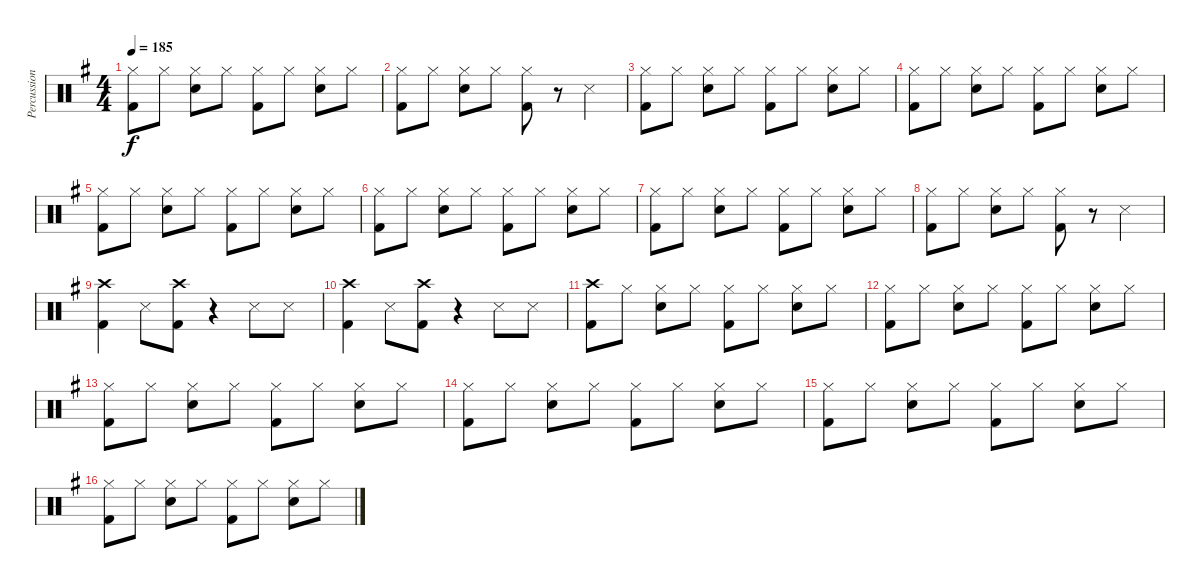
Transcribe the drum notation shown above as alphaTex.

\track ("Percussion" "Percussion") {instrument percussion}
\staff {score}
\articulation defaults
\ts (4 4)
\tempo 185
\clef neutral
\ks g
("Hi-Hat (closed)" "Kick (hit) 2").8{dy f} "Hi-Hat (closed)".8 ("Hi-Hat (closed)" "Snare (hit) 2").8 "Hi-Hat (closed)".8 ("Hi-Hat (closed)" "Kick (hit) 2").8 "Hi-Hat (closed)".8 ("Hi-Hat (closed)" "Snare (hit) 2").8 "Hi-Hat (closed)".8 |
("Hi-Hat (closed)" "Kick (hit) 2").8 "Hi-Hat (closed)".8 ("Hi-Hat (closed)" "Snare (hit) 2").8 "Hi-Hat (closed)".8 ("Hi-Hat (closed)" "Kick (hit) 2").8 r.8 "Snare (side stick) 3".4 |
("Hi-Hat (closed)" "Kick (hit) 2").8 "Hi-Hat (closed)".8 ("Hi-Hat (closed)" "Snare (hit) 2").8 "Hi-Hat (closed)".8 ("Hi-Hat (closed)" "Kick (hit) 2").8 "Hi-Hat (closed)".8 ("Hi-Hat (closed)" "Snare (hit) 2").8 "Hi-Hat (closed)".8 |
("Hi-Hat (closed)" "Kick (hit) 2").8 "Hi-Hat (closed)".8 ("Hi-Hat (closed)" "Snare (hit) 2").8 "Hi-Hat (closed)".8 ("Hi-Hat (closed)" "Kick (hit) 2").8 "Hi-Hat (closed)".8 ("Hi-Hat (closed)" "Snare (hit) 2").8 "Hi-Hat (closed)".8 |
("Hi-Hat (closed)" "Kick (hit) 2").8 "Hi-Hat (closed)".8 ("Hi-Hat (closed)" "Snare (hit) 2").8 "Hi-Hat (closed)".8 ("Hi-Hat (closed)" "Kick (hit) 2").8 "Hi-Hat (closed)".8 ("Hi-Hat (closed)" "Snare (hit) 2").8 "Hi-Hat (closed)".8 |
("Hi-Hat (closed)" "Kick (hit) 2").8 "Hi-Hat (closed)".8 ("Hi-Hat (closed)" "Snare (hit) 2").8 "Hi-Hat (closed)".8 ("Hi-Hat (closed)" "Kick (hit) 2").8 "Hi-Hat (closed)".8 ("Hi-Hat (closed)" "Snare (hit) 2").8 "Hi-Hat (closed)".8 |
("Hi-Hat (closed)" "Kick (hit) 2").8 "Hi-Hat (closed)".8 ("Hi-Hat (closed)" "Snare (hit) 2").8 "Hi-Hat (closed)".8 ("Hi-Hat (closed)" "Kick (hit) 2").8 "Hi-Hat (closed)".8 ("Hi-Hat (closed)" "Snare (hit) 2").8 "Hi-Hat (closed)".8 |
("Hi-Hat (closed)" "Kick (hit) 2").8 "Hi-Hat (closed)".8 ("Hi-Hat (closed)" "Snare (hit) 2").8 "Hi-Hat (closed)".8 ("Hi-Hat (closed)" "Kick (hit) 2").8 r.8 "Snare (side stick) 3".4 |
("Crash high (hit)" "Kick (hit) 2").4 "Snare (side stick) 3".8 ("Crash high (hit)" "Kick (hit) 2").8 r.4 "Snare (side stick) 3".8 "Snare (side stick) 3".8 |
("Crash high (hit)" "Kick (hit) 2").4 "Snare (side stick) 3".8 ("Crash high (hit)" "Kick (hit) 2").8 r.4 "Snare (side stick) 3".8 "Snare (side stick) 3".8 |
("Crash high (hit)" "Kick (hit) 2").8 "Hi-Hat (closed)".8 ("Hi-Hat (closed)" "Snare (hit) 2").8 "Hi-Hat (closed)".8 ("Hi-Hat (closed)" "Kick (hit) 2").8 "Hi-Hat (closed)".8 ("Hi-Hat (closed)" "Snare (hit) 2").8 "Hi-Hat (closed)".8 |
("Hi-Hat (closed)" "Kick (hit) 2").8 "Hi-Hat (closed)".8 ("Hi-Hat (closed)" "Snare (hit) 2").8 "Hi-Hat (closed)".8 ("Hi-Hat (closed)" "Kick (hit) 2").8 "Hi-Hat (closed)".8 ("Hi-Hat (closed)" "Snare (hit) 2").8 "Hi-Hat (closed)".8 |
("Hi-Hat (closed)" "Kick (hit) 2").8 "Hi-Hat (closed)".8 ("Hi-Hat (closed)" "Snare (hit) 2").8 "Hi-Hat (closed)".8 ("Hi-Hat (closed)" "Kick (hit) 2").8 "Hi-Hat (closed)".8 ("Hi-Hat (closed)" "Snare (hit) 2").8 "Hi-Hat (closed)".8 |
("Hi-Hat (closed)" "Kick (hit) 2").8 "Hi-Hat (closed)".8 ("Hi-Hat (closed)" "Snare (hit) 2").8 "Hi-Hat (closed)".8 ("Hi-Hat (closed)" "Kick (hit) 2").8 "Hi-Hat (closed)".8 ("Hi-Hat (closed)" "Snare (hit) 2").8 "Hi-Hat (closed)".8 |
("Hi-Hat (closed)" "Kick (hit) 2").8 "Hi-Hat (closed)".8 ("Hi-Hat (closed)" "Snare (hit) 2").8 "Hi-Hat (closed)".8 ("Hi-Hat (closed)" "Kick (hit) 2").8 "Hi-Hat (closed)".8 ("Hi-Hat (closed)" "Snare (hit) 2").8 "Hi-Hat (closed)".8 |
("Hi-Hat (closed)" "Kick (hit) 2").8 "Hi-Hat (closed)".8 ("Hi-Hat (closed)" "Snare (hit) 2").8 "Hi-Hat (closed)".8 ("Hi-Hat (closed)" "Kick (hit) 2").8 "Hi-Hat (closed)".8 ("Hi-Hat (closed)" "Snare (hit) 2").8 "Hi-Hat (closed)".8
